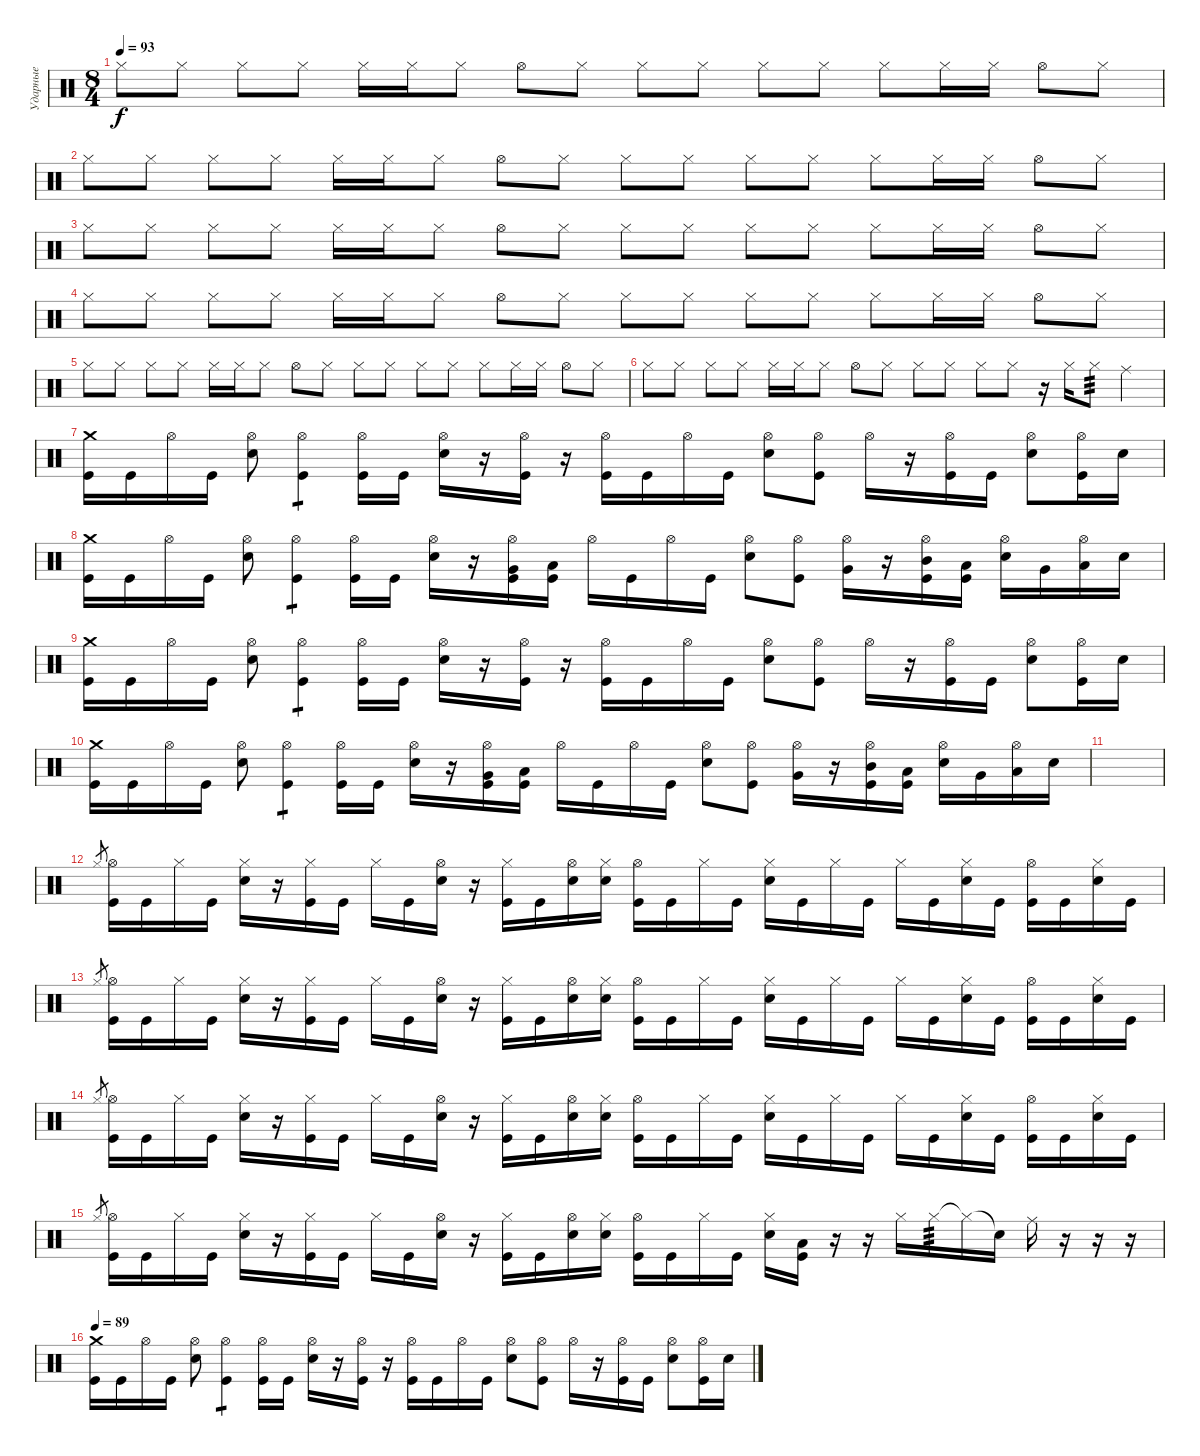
\track ("Ударные" "Ударные") {instrument percussion}
\staff {score}
\articulation defaults
\ts (8 4)
\tempo 93
\clef neutral
\ks c "Hi-Hat (closed)".8{dy f} "Hi-Hat (closed)".8 "Hi-Hat (closed)".8 "Hi-Hat (closed)".8 "Hi-Hat (closed)".16 "Hi-Hat (closed)".16 "Hi-Hat (closed)".8 "Hi-Hat (open)".8 "Hi-Hat (closed)".8 "Hi-Hat (closed)".8 "Hi-Hat (closed)".8 "Hi-Hat (closed)".8 "Hi-Hat (closed)".8 "Hi-Hat (closed)".8 "Hi-Hat (closed)".16 "Hi-Hat (closed)".16 "Hi-Hat (open)".8 "Hi-Hat (closed)".8
|
"Hi-Hat (closed)".8 "Hi-Hat (closed)".8 "Hi-Hat (closed)".8 "Hi-Hat (closed)".8 "Hi-Hat (closed)".16 "Hi-Hat (closed)".16 "Hi-Hat (closed)".8 "Hi-Hat (open)".8 "Hi-Hat (closed)".8 "Hi-Hat (closed)".8 "Hi-Hat (closed)".8 "Hi-Hat (closed)".8 "Hi-Hat (closed)".8 "Hi-Hat (closed)".8 "Hi-Hat (closed)".16 "Hi-Hat (closed)".16 "Hi-Hat (open)".8 "Hi-Hat (closed)".8 |
"Hi-Hat (closed)".8 "Hi-Hat (closed)".8 "Hi-Hat (closed)".8 "Hi-Hat (closed)".8 "Hi-Hat (closed)".16 "Hi-Hat (closed)".16 "Hi-Hat (closed)".8 "Hi-Hat (open)".8 "Hi-Hat (closed)".8 "Hi-Hat (closed)".8 "Hi-Hat (closed)".8 "Hi-Hat (closed)".8 "Hi-Hat (closed)".8 "Hi-Hat (closed)".8 "Hi-Hat (closed)".16 "Hi-Hat (closed)".16 "Hi-Hat (open)".8 "Hi-Hat (closed)".8 |
"Hi-Hat (closed)".8 "Hi-Hat (closed)".8 "Hi-Hat (closed)".8 "Hi-Hat (closed)".8 "Hi-Hat (closed)".16 "Hi-Hat (closed)".16 "Hi-Hat (closed)".8 "Hi-Hat (open)".8 "Hi-Hat (closed)".8 "Hi-Hat (closed)".8 "Hi-Hat (closed)".8 "Hi-Hat (closed)".8 "Hi-Hat (closed)".8 "Hi-Hat (closed)".8 "Hi-Hat (closed)".16 "Hi-Hat (closed)".16 "Hi-Hat (open)".8 "Hi-Hat (closed)".8 |
"Hi-Hat (closed)".8 "Hi-Hat (closed)".8 "Hi-Hat (closed)".8 "Hi-Hat (closed)".8 "Hi-Hat (closed)".16 "Hi-Hat (closed)".16 "Hi-Hat (closed)".8 "Hi-Hat (open)".8 "Hi-Hat (closed)".8 "Hi-Hat (closed)".8 "Hi-Hat (closed)".8 "Hi-Hat (closed)".8 "Hi-Hat (closed)".8 "Hi-Hat (closed)".8 "Hi-Hat (closed)".16 "Hi-Hat (closed)".16 "Hi-Hat (open)".8 "Hi-Hat (closed)".8 |
"Hi-Hat (closed)".8 "Hi-Hat (closed)".8 "Hi-Hat (closed)".8 "Hi-Hat (closed)".8 "Hi-Hat (closed)".16 "Hi-Hat (closed)".16 "Hi-Hat (closed)".8 "Hi-Hat (open)".8 "Hi-Hat (closed)".8 "Hi-Hat (closed)".8 "Hi-Hat (closed)".8 "Hi-Hat (closed)".8 "Hi-Hat (closed)".8 r.16 "Hi-Hat (closed)".16 "Hi-Hat (closed)".8{tp 3} "Ride (middle)".4 |
("Crash medium (hit)" "Kick (hit)").16 "Kick (hit)".16 "Hi-Hat (open)".16 "Kick (hit)".16 ("Hi-Hat (open)" "Electric Snare (hit)").8 ("Hi-Hat (open)" "Kick (hit)").4{tp 1} ("Hi-Hat (open)" "Kick (hit)").16 "Kick (hit)".16 ("Hi-Hat (open)" "Electric Snare (hit)").16 r.16 ("Hi-Hat (open)" "Kick (hit)").16 r.16 ("Hi-Hat (open)" "Kick (hit)").16 "Kick (hit)".16 "Hi-Hat (open)".16 "Kick (hit)".16 ("Hi-Hat (open)" "Electric Snare (hit)").8 ("Hi-Hat (open)" "Kick (hit)").8 "Hi-Hat (open)".16 r.16 ("Hi-Hat (open)" "Kick (hit)").16 "Kick (hit)".16 ("Hi-Hat (open)" "Electric Snare (hit)").8 ("Hi-Hat (open)" "Kick (hit)").16 "Electric Snare (hit)".16 |
("Crash medium (hit)" "Kick (hit)").16 "Kick (hit)".16 "Hi-Hat (open)".16 "Kick (hit)".16 ("Hi-Hat (open)" "Electric Snare (hit)").8 ("Hi-Hat (open)" "Kick (hit)").4{tp 1} ("Hi-Hat (open)" "Kick (hit)").16 "Kick (hit)".16 ("Hi-Hat (open)" "Electric Snare (hit)").16 r.16 ("Hi-Hat (open)" "Very Low Tom (hit)" "Kick (hit)").16 ("Low Floor Tom (hit)" "Kick (hit)").16 "Hi-Hat (open)".16 "Kick (hit)".16 "Hi-Hat (open)".16 "Kick (hit)".16 ("Hi-Hat (open)" "Electric Snare (hit)").8 ("Hi-Hat (open)" "Kick (hit)").8 ("Hi-Hat (open)" "Very Low Tom (hit)").16 r.16 ("Hi-Hat (open)" "Mid Tom (hit)" "Kick (hit)").16 ("Low Tom (hit)" "Kick (hit)").16 ("Hi-Hat (open)" "Electric Snare (hit)").16 "Very Low Tom (hit)".16 ("Hi-Hat (open)" "Low Floor Tom (hit)").16 "Electric Snare (hit)".16 |
("Crash medium (hit)" "Kick (hit)").16 "Kick (hit)".16 "Hi-Hat (open)".16 "Kick (hit)".16 ("Hi-Hat (open)" "Electric Snare (hit)").8 ("Hi-Hat (open)" "Kick (hit)").4{tp 1} ("Hi-Hat (open)" "Kick (hit)").16 "Kick (hit)".16 ("Hi-Hat (open)" "Electric Snare (hit)").16 r.16 ("Hi-Hat (open)" "Kick (hit)").16 r.16 ("Hi-Hat (open)" "Kick (hit)").16 "Kick (hit)".16 "Hi-Hat (open)".16 "Kick (hit)".16 ("Hi-Hat (open)" "Electric Snare (hit)").8 ("Hi-Hat (open)" "Kick (hit)").8 "Hi-Hat (open)".16 r.16 ("Hi-Hat (open)" "Kick (hit)").16 "Kick (hit)".16 ("Hi-Hat (open)" "Electric Snare (hit)").8 ("Hi-Hat (open)" "Kick (hit)").16 "Electric Snare (hit)".16 |
("Crash medium (hit)" "Kick (hit)").16 "Kick (hit)".16 "Hi-Hat (open)".16 "Kick (hit)".16 ("Hi-Hat (open)" "Electric Snare (hit)").8 ("Hi-Hat (open)" "Kick (hit)").4{tp 1} ("Hi-Hat (open)" "Kick (hit)").16 "Kick (hit)".16 ("Hi-Hat (open)" "Electric Snare (hit)").16 r.16 ("Hi-Hat (open)" "Very Low Tom (hit)" "Kick (hit)").16 ("Low Floor Tom (hit)" "Kick (hit)").16 "Hi-Hat (open)".16 "Kick (hit)".16 "Hi-Hat (open)".16 "Kick (hit)".16 ("Hi-Hat (open)" "Electric Snare (hit)").8 ("Hi-Hat (open)" "Kick (hit)").8 ("Hi-Hat (open)" "Very Low Tom (hit)").16 r.16 ("Hi-Hat (open)" "Mid Tom (hit)" "Kick (hit)").16 ("Low Tom (hit)" "Kick (hit)").16 ("Hi-Hat (open)" "Electric Snare (hit)").16 "Very Low Tom (hit)".16 ("Hi-Hat (open)" "Low Floor Tom (hit)").16 "Electric Snare (hit)".16 |
|
"Hi-Hat (closed)".8{gr} ("Hi-Hat (open)" "Kick (hit)").16 "Kick (hit)".16 "Hi-Hat (closed)".16 "Kick (hit)".16 ("Hi-Hat (closed)" "Electric Snare (hit)").16 r.16 ("Hi-Hat (closed)" "Kick (hit)").16 "Kick (hit)".16 "Hi-Hat (closed)".16 "Kick (hit)".16 ("Hi-Hat (open)" "Electric Snare (hit)").16 r.16 ("Hi-Hat (closed)" "Kick (hit)").16 "Kick (hit)".16 ("Hi-Hat (open)" "Electric Snare (hit)").16 ("Hi-Hat (closed)" "Electric Snare (hit)").16 ("Hi-Hat (open)" "Kick (hit)").16 "Kick (hit)".16 "Hi-Hat (closed)".16 "Kick (hit)".16 ("Hi-Hat (closed)" "Electric Snare (hit)").16 "Kick (hit)".16 "Hi-Hat (closed)".16 "Kick (hit)".16 "Hi-Hat (closed)".16 "Kick (hit)".16 ("Hi-Hat (closed)" "Electric Snare (hit)").16 "Kick (hit)".16 ("Hi-Hat (open)" "Kick (hit)").16 "Kick (hit)".16 ("Hi-Hat (closed)" "Electric Snare (hit)").16 "Kick (hit)".16 |
"Hi-Hat (closed)".8{gr} ("Hi-Hat (open)" "Kick (hit)").16 "Kick (hit)".16 "Hi-Hat (closed)".16 "Kick (hit)".16 ("Hi-Hat (closed)" "Electric Snare (hit)").16 r.16 ("Hi-Hat (closed)" "Kick (hit)").16 "Kick (hit)".16 "Hi-Hat (closed)".16 "Kick (hit)".16 ("Hi-Hat (open)" "Electric Snare (hit)").16 r.16 ("Hi-Hat (closed)" "Kick (hit)").16 "Kick (hit)".16 ("Hi-Hat (open)" "Electric Snare (hit)").16 ("Hi-Hat (closed)" "Electric Snare (hit)").16 ("Hi-Hat (open)" "Kick (hit)").16 "Kick (hit)".16 "Hi-Hat (closed)".16 "Kick (hit)".16 ("Hi-Hat (closed)" "Electric Snare (hit)").16 "Kick (hit)".16 "Hi-Hat (closed)".16 "Kick (hit)".16 "Hi-Hat (closed)".16 "Kick (hit)".16 ("Hi-Hat (closed)" "Electric Snare (hit)").16 "Kick (hit)".16 ("Hi-Hat (open)" "Kick (hit)").16 "Kick (hit)".16 ("Hi-Hat (closed)" "Electric Snare (hit)").16 "Kick (hit)".16 |
"Hi-Hat (closed)".8{gr} ("Hi-Hat (open)" "Kick (hit)").16 "Kick (hit)".16 "Hi-Hat (closed)".16 "Kick (hit)".16 ("Hi-Hat (closed)" "Electric Snare (hit)").16 r.16 ("Hi-Hat (closed)" "Kick (hit)").16 "Kick (hit)".16 "Hi-Hat (closed)".16 "Kick (hit)".16 ("Hi-Hat (open)" "Electric Snare (hit)").16 r.16 ("Hi-Hat (closed)" "Kick (hit)").16 "Kick (hit)".16 ("Hi-Hat (open)" "Electric Snare (hit)").16 ("Hi-Hat (closed)" "Electric Snare (hit)").16 ("Hi-Hat (open)" "Kick (hit)").16 "Kick (hit)".16 "Hi-Hat (closed)".16 "Kick (hit)".16 ("Hi-Hat (closed)" "Electric Snare (hit)").16 "Kick (hit)".16 "Hi-Hat (closed)".16 "Kick (hit)".16 "Hi-Hat (closed)".16 "Kick (hit)".16 ("Hi-Hat (closed)" "Electric Snare (hit)").16 "Kick (hit)".16 ("Hi-Hat (open)" "Kick (hit)").16 "Kick (hit)".16 ("Hi-Hat (closed)" "Electric Snare (hit)").16 "Kick (hit)".16 |
"Hi-Hat (closed)".8{gr} ("Hi-Hat (open)" "Kick (hit)").16 "Kick (hit)".16 "Hi-Hat (closed)".16 "Kick (hit)".16 ("Hi-Hat (closed)" "Electric Snare (hit)").16 r.16 ("Hi-Hat (closed)" "Kick (hit)").16 "Kick (hit)".16 "Hi-Hat (closed)".16 "Kick (hit)".16 ("Hi-Hat (open)" "Electric Snare (hit)").16 r.16 ("Hi-Hat (closed)" "Kick (hit)").16 "Kick (hit)".16 ("Hi-Hat (open)" "Electric Snare (hit)").16 ("Hi-Hat (closed)" "Electric Snare (hit)").16 ("Hi-Hat (open)" "Kick (hit)").16 "Kick (hit)".16 "Hi-Hat (closed)".16 "Kick (hit)".16 ("Hi-Hat (closed)" "Electric Snare (hit)").16 ("Low Floor Tom (hit)" "Kick (hit)").16 r.16 r.16 "Hi-Hat (closed)".16 "Hi-Hat (closed)".16{tp 3} "Hi-Hat (closed)"{t}.16 "Snare (hit)"{t}.16 "Ride (middle)".16 r.16 r.16 r.16 |
\tempo 89
("Crash medium (hit)" "Kick (hit)").16 "Kick (hit)".16 "Hi-Hat (open)".16 "Kick (hit)".16 ("Hi-Hat (open)" "Electric Snare (hit)").8 ("Hi-Hat (open)" "Kick (hit)").4{tp 1} ("Hi-Hat (open)" "Kick (hit)").16 "Kick (hit)".16 ("Hi-Hat (open)" "Electric Snare (hit)").16 r.16 ("Hi-Hat (open)" "Kick (hit)").16 r.16 ("Hi-Hat (open)" "Kick (hit)").16 "Kick (hit)".16 "Hi-Hat (open)".16 "Kick (hit)".16 ("Hi-Hat (open)" "Electric Snare (hit)").8 ("Hi-Hat (open)" "Kick (hit)").8 "Hi-Hat (open)".16 r.16 ("Hi-Hat (open)" "Kick (hit)").16 "Kick (hit)".16 ("Hi-Hat (open)" "Electric Snare (hit)").8 ("Hi-Hat (open)" "Kick (hit)").16 "Electric Snare (hit)".16
